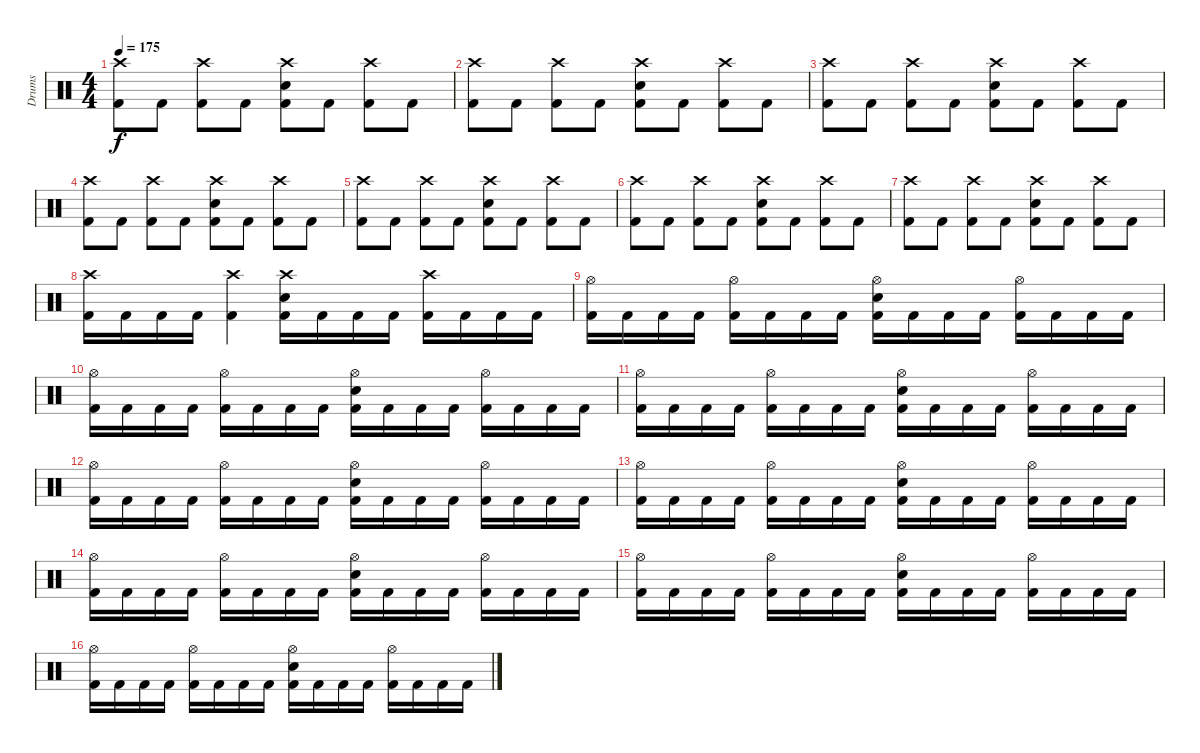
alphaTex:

\track ("Drums" "Drums") {instrument percussion}
\staff {score}
\articulation defaults
\ts (4 4)
\tempo 175
\clef neutral
\ks c
("Crash high (hit)" "Kick (hit) 2").8{dy f} "Kick (hit) 2".8 ("Crash high (hit)" "Kick (hit) 2").8 "Kick (hit) 2".8 ("Crash high (hit)" "Snare (hit) 2" "Kick (hit) 2").8 "Kick (hit) 2".8 ("Crash high (hit)" "Kick (hit) 2").8 "Kick (hit) 2".8 |
("Crash high (hit)" "Kick (hit) 2").8 "Kick (hit) 2".8 ("Crash high (hit)" "Kick (hit) 2").8 "Kick (hit) 2".8 ("Crash high (hit)" "Snare (hit) 2" "Kick (hit) 2").8 "Kick (hit) 2".8 ("Crash high (hit)" "Kick (hit) 2").8 "Kick (hit) 2".8 |
("Crash high (hit)" "Kick (hit) 2").8 "Kick (hit) 2".8 ("Crash high (hit)" "Kick (hit) 2").8 "Kick (hit) 2".8 ("Crash high (hit)" "Snare (hit) 2" "Kick (hit) 2").8 "Kick (hit) 2".8 ("Crash high (hit)" "Kick (hit) 2").8 "Kick (hit) 2".8 |
("Crash high (hit)" "Kick (hit) 2").8 "Kick (hit) 2".8 ("Crash high (hit)" "Kick (hit) 2").8 "Kick (hit) 2".8 ("Crash high (hit)" "Snare (hit) 2" "Kick (hit) 2").8 "Kick (hit) 2".8 ("Crash high (hit)" "Kick (hit) 2").8 "Kick (hit) 2".8 |
("Crash high (hit)" "Kick (hit) 2").8 "Kick (hit) 2".8 ("Crash high (hit)" "Kick (hit) 2").8 "Kick (hit) 2".8 ("Crash high (hit)" "Snare (hit) 2" "Kick (hit) 2").8 "Kick (hit) 2".8 ("Crash high (hit)" "Kick (hit) 2").8 "Kick (hit) 2".8 |
("Crash high (hit)" "Kick (hit) 2").8 "Kick (hit) 2".8 ("Crash high (hit)" "Kick (hit) 2").8 "Kick (hit) 2".8 ("Crash high (hit)" "Snare (hit) 2" "Kick (hit) 2").8 "Kick (hit) 2".8 ("Crash high (hit)" "Kick (hit) 2").8 "Kick (hit) 2".8 |
("Crash high (hit)" "Kick (hit) 2").8 "Kick (hit) 2".8 ("Crash high (hit)" "Kick (hit) 2").8 "Kick (hit) 2".8 ("Crash high (hit)" "Snare (hit) 2" "Kick (hit) 2").8 "Kick (hit) 2".8 ("Crash high (hit)" "Kick (hit) 2").8 "Kick (hit) 2".8 |
("Crash high (hit)" "Kick (hit) 2").16 "Kick (hit) 2".16 "Kick (hit) 2".16 "Kick (hit) 2".16 ("Crash high (hit)" "Kick (hit) 2").4 ("Crash high (hit)" "Snare (hit) 2" "Kick (hit) 2").16 "Kick (hit) 2".16 "Kick (hit) 2".16 "Kick (hit) 2".16 ("Crash high (hit)" "Kick (hit) 2").16 "Kick (hit) 2".16 "Kick (hit) 2".16 "Kick (hit) 2".16 |
("Hi-Hat (open)" "Kick (hit) 2").16 "Kick (hit) 2".16 "Kick (hit) 2".16 "Kick (hit) 2".16 ("Hi-Hat (open)" "Kick (hit) 2").16 "Kick (hit) 2".16 "Kick (hit) 2".16 "Kick (hit) 2".16 ("Hi-Hat (open)" "Snare (hit) 2" "Kick (hit) 2").16 "Kick (hit) 2".16 "Kick (hit) 2".16 "Kick (hit) 2".16 ("Hi-Hat (open)" "Kick (hit) 2").16 "Kick (hit) 2".16 "Kick (hit) 2".16 "Kick (hit) 2".16 |
("Hi-Hat (open)" "Kick (hit) 2").16 "Kick (hit) 2".16 "Kick (hit) 2".16 "Kick (hit) 2".16 ("Hi-Hat (open)" "Kick (hit) 2").16 "Kick (hit) 2".16 "Kick (hit) 2".16 "Kick (hit) 2".16 ("Hi-Hat (open)" "Snare (hit) 2" "Kick (hit) 2").16 "Kick (hit) 2".16 "Kick (hit) 2".16 "Kick (hit) 2".16 ("Hi-Hat (open)" "Kick (hit) 2").16 "Kick (hit) 2".16 "Kick (hit) 2".16 "Kick (hit) 2".16 |
("Hi-Hat (open)" "Kick (hit) 2").16 "Kick (hit) 2".16 "Kick (hit) 2".16 "Kick (hit) 2".16 ("Hi-Hat (open)" "Kick (hit) 2").16 "Kick (hit) 2".16 "Kick (hit) 2".16 "Kick (hit) 2".16 ("Hi-Hat (open)" "Snare (hit) 2" "Kick (hit) 2").16 "Kick (hit) 2".16 "Kick (hit) 2".16 "Kick (hit) 2".16 ("Hi-Hat (open)" "Kick (hit) 2").16 "Kick (hit) 2".16 "Kick (hit) 2".16 "Kick (hit) 2".16 |
("Hi-Hat (open)" "Kick (hit) 2").16 "Kick (hit) 2".16 "Kick (hit) 2".16 "Kick (hit) 2".16 ("Hi-Hat (open)" "Kick (hit) 2").16 "Kick (hit) 2".16 "Kick (hit) 2".16 "Kick (hit) 2".16 ("Hi-Hat (open)" "Snare (hit) 2" "Kick (hit) 2").16 "Kick (hit) 2".16 "Kick (hit) 2".16 "Kick (hit) 2".16 ("Hi-Hat (open)" "Kick (hit) 2").16 "Kick (hit) 2".16 "Kick (hit) 2".16 "Kick (hit) 2".16 |
("Hi-Hat (open)" "Kick (hit) 2").16 "Kick (hit) 2".16 "Kick (hit) 2".16 "Kick (hit) 2".16 ("Hi-Hat (open)" "Kick (hit) 2").16 "Kick (hit) 2".16 "Kick (hit) 2".16 "Kick (hit) 2".16 ("Hi-Hat (open)" "Snare (hit) 2" "Kick (hit) 2").16 "Kick (hit) 2".16 "Kick (hit) 2".16 "Kick (hit) 2".16 ("Hi-Hat (open)" "Kick (hit) 2").16 "Kick (hit) 2".16 "Kick (hit) 2".16 "Kick (hit) 2".16 |
("Hi-Hat (open)" "Kick (hit) 2").16 "Kick (hit) 2".16 "Kick (hit) 2".16 "Kick (hit) 2".16 ("Hi-Hat (open)" "Kick (hit) 2").16 "Kick (hit) 2".16 "Kick (hit) 2".16 "Kick (hit) 2".16 ("Hi-Hat (open)" "Snare (hit) 2" "Kick (hit) 2").16 "Kick (hit) 2".16 "Kick (hit) 2".16 "Kick (hit) 2".16 ("Hi-Hat (open)" "Kick (hit) 2").16 "Kick (hit) 2".16 "Kick (hit) 2".16 "Kick (hit) 2".16 |
("Hi-Hat (open)" "Kick (hit) 2").16 "Kick (hit) 2".16 "Kick (hit) 2".16 "Kick (hit) 2".16 ("Hi-Hat (open)" "Kick (hit) 2").16 "Kick (hit) 2".16 "Kick (hit) 2".16 "Kick (hit) 2".16 ("Hi-Hat (open)" "Snare (hit) 2" "Kick (hit) 2").16 "Kick (hit) 2".16 "Kick (hit) 2".16 "Kick (hit) 2".16 ("Hi-Hat (open)" "Kick (hit) 2").16 "Kick (hit) 2".16 "Kick (hit) 2".16 "Kick (hit) 2".16 |
("Hi-Hat (open)" "Kick (hit) 2").16 "Kick (hit) 2".16 "Kick (hit) 2".16 "Kick (hit) 2".16 ("Hi-Hat (open)" "Kick (hit) 2").16 "Kick (hit) 2".16 "Kick (hit) 2".16 "Kick (hit) 2".16 ("Hi-Hat (open)" "Snare (hit) 2" "Kick (hit) 2").16 "Kick (hit) 2".16 "Kick (hit) 2".16 "Kick (hit) 2".16 ("Hi-Hat (open)" "Kick (hit) 2").16 "Kick (hit) 2".16 "Kick (hit) 2".16 "Kick (hit) 2".16
